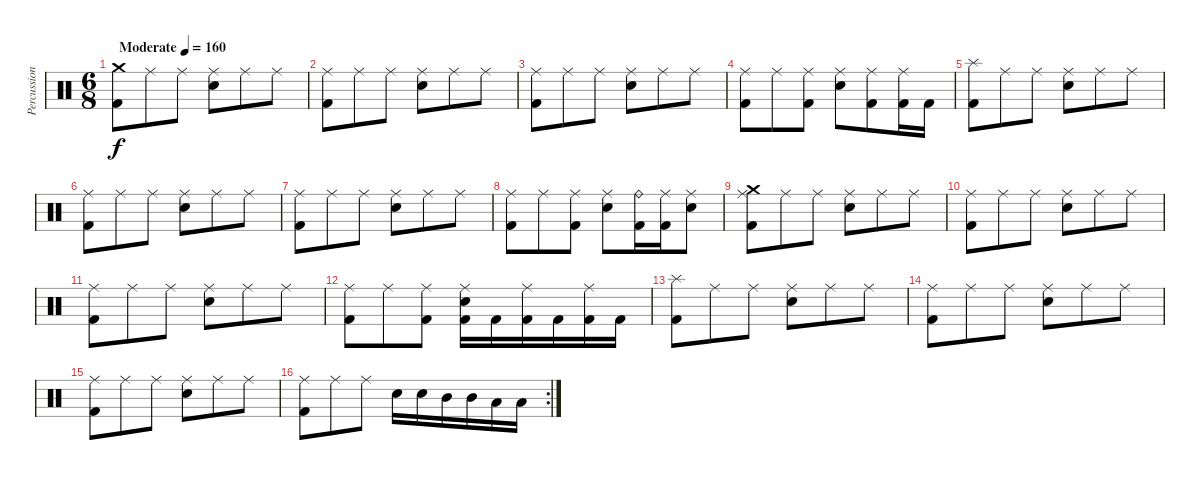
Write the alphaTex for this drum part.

\track ("Percussion" "Percussion") {instrument percussion}
\staff {score}
\articulation defaults
\ts (6 8)
\tempo (160 "Moderate")
\clef neutral
\ks c
("Crash medium (hit)" "Kick (hit) 2").8{dy f} "Ride (middle)".8 "Ride (middle)".8 ("Ride (middle)" "Electric Snare (hit)").8 "Ride (middle)".8 "Ride (middle)".8 |
("Ride (middle)" "Kick (hit) 2").8 "Ride (middle)".8 "Ride (middle)".8 ("Ride (middle)" "Electric Snare (hit)").8 "Ride (middle)".8 "Ride (middle)".8 |
("Ride (middle)" "Kick (hit) 2").8 "Ride (middle)".8 "Ride (middle)".8 ("Ride (middle)" "Electric Snare (hit)").8 "Ride (middle)".8 "Ride (middle)".8 |
("Ride (middle)" "Kick (hit) 2").8 "Ride (middle)".8 ("Ride (middle)" "Kick (hit) 2").8 ("Ride (middle)" "Electric Snare (hit)").8 ("Ride (middle)" "Kick (hit) 2").8 ("Ride (middle)" "Kick (hit) 2").16 "Kick (hit) 2".16 |
("Splash (hit)" "Kick (hit) 2").8 "Ride (middle)".8 "Ride (middle)".8 ("Ride (middle)" "Electric Snare (hit)").8 "Ride (middle)".8 "Ride (middle)".8 |
("Ride (middle)" "Kick (hit) 2").8 "Ride (middle)".8 "Ride (middle)".8 ("Ride (middle)" "Electric Snare (hit)").8 "Ride (middle)".8 "Ride (middle)".8 |
("Ride (middle)" "Kick (hit) 2").8 "Ride (middle)".8 "Ride (middle)".8 ("Ride (middle)" "Electric Snare (hit)").8 "Ride (middle)".8 "Ride (middle)".8 |
("Ride (middle)" "Kick (hit) 2").8 "Ride (middle)".8 ("Ride (middle)" "Kick (hit) 2").8 ("Ride (middle)" "Electric Snare (hit)").8 ("Ride (bell)" "Kick (hit) 2").16 ("Ride (middle)" "Kick (hit) 2").16 ("Ride (middle)" "Electric Snare (hit)").8 |
("Ride (middle)" "Crash medium (hit)" "Kick (hit) 2").8 "Ride (middle)".8 "Ride (middle)".8 ("Ride (middle)" "Electric Snare (hit)").8 "Ride (middle)".8 "Ride (middle)".8 |
("Ride (middle)" "Kick (hit) 2").8 "Ride (middle)".8 "Ride (middle)".8 ("Ride (middle)" "Electric Snare (hit)").8 "Ride (middle)".8 "Ride (middle)".8 |
("Ride (middle)" "Kick (hit) 2").8 "Ride (middle)".8 "Ride (middle)".8 ("Ride (middle)" "Electric Snare (hit)").8 "Ride (middle)".8 "Ride (middle)".8 |
("Ride (middle)" "Kick (hit) 2").8 "Ride (middle)".8 ("Ride (middle)" "Kick (hit) 2").8 ("Ride (middle)" "Electric Snare (hit)" "Kick (hit) 2").16 "Kick (hit) 2".16 ("Ride (middle)" "Kick (hit) 2").16 "Kick (hit) 2".16 ("Ride (middle)" "Kick (hit) 2").16 "Kick (hit) 2".16 |
("Splash (hit)" "Kick (hit) 2").8 "Ride (middle)".8 "Ride (middle)".8 ("Ride (middle)" "Electric Snare (hit)").8 "Ride (middle)".8 "Ride (middle)".8 |
("Ride (middle)" "Kick (hit) 2").8 "Ride (middle)".8 "Ride (middle)".8 ("Ride (middle)" "Electric Snare (hit)").8 "Ride (middle)".8 "Ride (middle)".8 |
("Ride (middle)" "Kick (hit) 2").8 "Ride (middle)".8 "Ride (middle)".8 ("Ride (middle)" "Electric Snare (hit)").8 "Ride (middle)".8 "Ride (middle)".8 |
\rc 2
("Ride (middle)" "Kick (hit) 2").8 "Ride (middle)".8 "Ride (middle)".8 "Electric Snare (hit)".16 "Electric Snare (hit)".16 "Mid Tom (hit)".16 "Mid Tom (hit)".16 "Low Tom (hit)".16 "Low Tom (hit)".16
